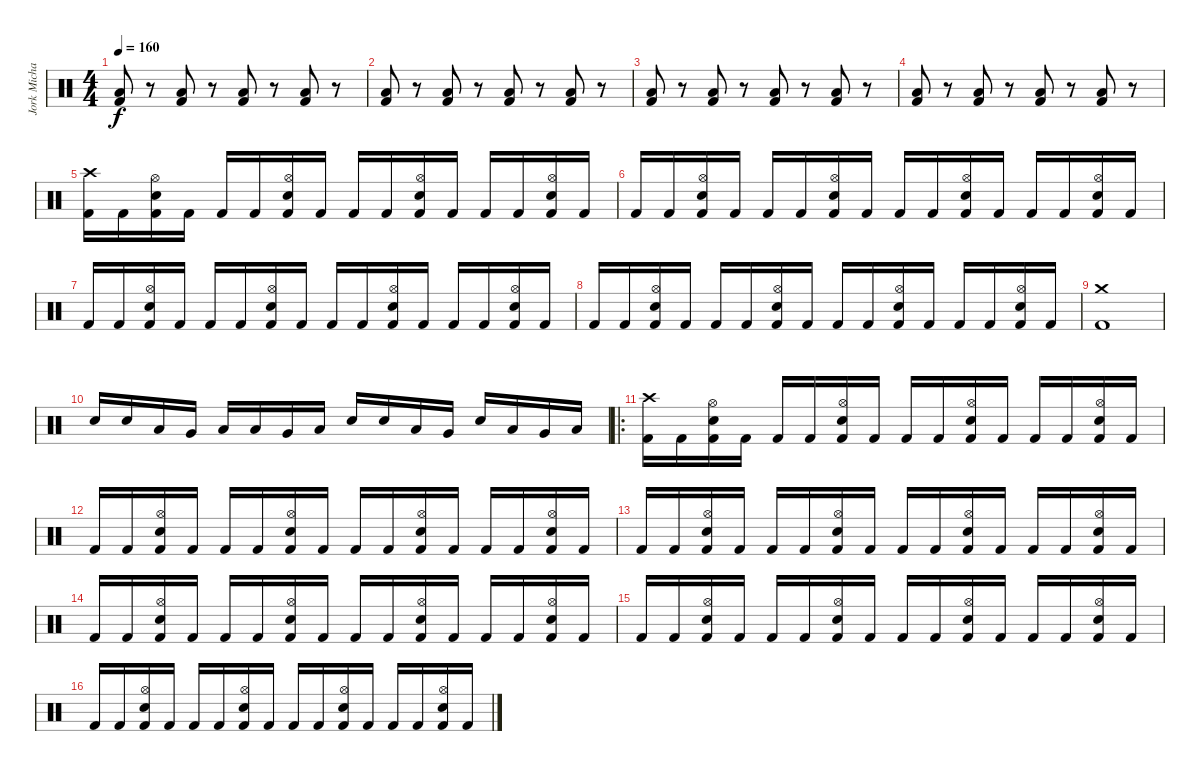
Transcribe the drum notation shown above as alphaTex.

\track ("Jork Michael" "Jork Micha") {instrument percussion}
\staff {score}
\articulation defaults
\ts (4 4)
\tempo 160
\clef neutral
\ks c
("Low Floor Tom (hit)" "Kick (hit) 2").8{dy f} r.8 ("Low Floor Tom (hit)" "Kick (hit) 2").8 r.8 ("Low Floor Tom (hit)" "Kick (hit) 2").8 r.8 ("Low Floor Tom (hit)" "Kick (hit) 2").8 r.8 |
("Low Floor Tom (hit)" "Kick (hit) 2").8 r.8 ("Low Floor Tom (hit)" "Kick (hit) 2").8 r.8 ("Low Floor Tom (hit)" "Kick (hit) 2").8 r.8 ("Low Floor Tom (hit)" "Kick (hit) 2").8 r.8 |
("Low Floor Tom (hit)" "Kick (hit) 2").8 r.8 ("Low Floor Tom (hit)" "Kick (hit) 2").8 r.8 ("Low Floor Tom (hit)" "Kick (hit) 2").8 r.8 ("Low Floor Tom (hit)" "Kick (hit) 2").8 r.8 |
("Low Floor Tom (hit)" "Kick (hit) 2").8 r.8 ("Low Floor Tom (hit)" "Kick (hit) 2").8 r.8 ("Low Floor Tom (hit)" "Kick (hit) 2").8 r.8 ("Low Floor Tom (hit)" "Kick (hit) 2").8 r.8 |
("Crash high (hit)" "Kick (hit) 2").16 "Kick (hit) 2".16 ("Hi-Hat (open)" "Electric Snare (hit)" "Kick (hit) 2").16 "Kick (hit) 2".16 "Kick (hit) 2".16 "Kick (hit) 2".16 ("Hi-Hat (open)" "Electric Snare (hit)" "Kick (hit) 2").16 "Kick (hit) 2".16 "Kick (hit) 2".16 "Kick (hit) 2".16 ("Hi-Hat (open)" "Electric Snare (hit)" "Kick (hit) 2").16 "Kick (hit) 2".16 "Kick (hit) 2".16 "Kick (hit) 2".16 ("Hi-Hat (open)" "Electric Snare (hit)" "Kick (hit) 2").16 "Kick (hit) 2".16 |
"Kick (hit) 2".16 "Kick (hit) 2".16 ("Hi-Hat (open)" "Electric Snare (hit)" "Kick (hit) 2").16 "Kick (hit) 2".16 "Kick (hit) 2".16 "Kick (hit) 2".16 ("Hi-Hat (open)" "Electric Snare (hit)" "Kick (hit) 2").16 "Kick (hit) 2".16 "Kick (hit) 2".16 "Kick (hit) 2".16 ("Hi-Hat (open)" "Electric Snare (hit)" "Kick (hit) 2").16 "Kick (hit) 2".16 "Kick (hit) 2".16 "Kick (hit) 2".16 ("Hi-Hat (open)" "Electric Snare (hit)" "Kick (hit) 2").16 "Kick (hit) 2".16 |
"Kick (hit) 2".16 "Kick (hit) 2".16 ("Hi-Hat (open)" "Electric Snare (hit)" "Kick (hit) 2").16 "Kick (hit) 2".16 "Kick (hit) 2".16 "Kick (hit) 2".16 ("Hi-Hat (open)" "Electric Snare (hit)" "Kick (hit) 2").16 "Kick (hit) 2".16 "Kick (hit) 2".16 "Kick (hit) 2".16 ("Hi-Hat (open)" "Electric Snare (hit)" "Kick (hit) 2").16 "Kick (hit) 2".16 "Kick (hit) 2".16 "Kick (hit) 2".16 ("Hi-Hat (open)" "Electric Snare (hit)" "Kick (hit) 2").16 "Kick (hit) 2".16 |
"Kick (hit) 2".16 "Kick (hit) 2".16 ("Hi-Hat (open)" "Electric Snare (hit)" "Kick (hit) 2").16 "Kick (hit) 2".16 "Kick (hit) 2".16 "Kick (hit) 2".16 ("Hi-Hat (open)" "Electric Snare (hit)" "Kick (hit) 2").16 "Kick (hit) 2".16 "Kick (hit) 2".16 "Kick (hit) 2".16 ("Hi-Hat (open)" "Electric Snare (hit)" "Kick (hit) 2").16 "Kick (hit) 2".16 "Kick (hit) 2".16 "Kick (hit) 2".16 ("Hi-Hat (open)" "Electric Snare (hit)" "Kick (hit) 2").16 "Kick (hit) 2".16 |
("Crash medium (hit)" "Kick (hit) 2").1 |
"Electric Snare (hit)".16 "Electric Snare (hit)".16 "Low Floor Tom (hit)".16 "Very Low Tom (hit)".16 "Low Floor Tom (hit)".16 "Low Tom (hit)".16 "Very Low Tom (hit)".16 "Low Floor Tom (hit)".16 "Electric Snare (hit)".16 "Electric Snare (hit)".16 "Low Floor Tom (hit)".16 "Very Low Tom (hit)".16 "Electric Snare (hit)".16 "Low Tom (hit)".16 "Very Low Tom (hit)".16 "Low Floor Tom (hit)".16 |
\ro
("Crash high (hit)" "Kick (hit) 2").16 "Kick (hit) 2".16 ("Hi-Hat (open)" "Electric Snare (hit)" "Kick (hit) 2").16 "Kick (hit) 2".16 "Kick (hit) 2".16 "Kick (hit) 2".16 ("Hi-Hat (open)" "Electric Snare (hit)" "Kick (hit) 2").16 "Kick (hit) 2".16 "Kick (hit) 2".16 "Kick (hit) 2".16 ("Hi-Hat (open)" "Electric Snare (hit)" "Kick (hit) 2").16 "Kick (hit) 2".16 "Kick (hit) 2".16 "Kick (hit) 2".16 ("Hi-Hat (open)" "Electric Snare (hit)" "Kick (hit) 2").16 "Kick (hit) 2".16 |
"Kick (hit) 2".16 "Kick (hit) 2".16 ("Hi-Hat (open)" "Electric Snare (hit)" "Kick (hit) 2").16 "Kick (hit) 2".16 "Kick (hit) 2".16 "Kick (hit) 2".16 ("Hi-Hat (open)" "Electric Snare (hit)" "Kick (hit) 2").16 "Kick (hit) 2".16 "Kick (hit) 2".16 "Kick (hit) 2".16 ("Hi-Hat (open)" "Electric Snare (hit)" "Kick (hit) 2").16 "Kick (hit) 2".16 "Kick (hit) 2".16 "Kick (hit) 2".16 ("Hi-Hat (open)" "Electric Snare (hit)" "Kick (hit) 2").16 "Kick (hit) 2".16 |
"Kick (hit) 2".16 "Kick (hit) 2".16 ("Hi-Hat (open)" "Electric Snare (hit)" "Kick (hit) 2").16 "Kick (hit) 2".16 "Kick (hit) 2".16 "Kick (hit) 2".16 ("Hi-Hat (open)" "Electric Snare (hit)" "Kick (hit) 2").16 "Kick (hit) 2".16 "Kick (hit) 2".16 "Kick (hit) 2".16 ("Hi-Hat (open)" "Electric Snare (hit)" "Kick (hit) 2").16 "Kick (hit) 2".16 "Kick (hit) 2".16 "Kick (hit) 2".16 ("Hi-Hat (open)" "Electric Snare (hit)" "Kick (hit) 2").16 "Kick (hit) 2".16 |
"Kick (hit) 2".16 "Kick (hit) 2".16 ("Hi-Hat (open)" "Electric Snare (hit)" "Kick (hit) 2").16 "Kick (hit) 2".16 "Kick (hit) 2".16 "Kick (hit) 2".16 ("Hi-Hat (open)" "Electric Snare (hit)" "Kick (hit) 2").16 "Kick (hit) 2".16 "Kick (hit) 2".16 "Kick (hit) 2".16 ("Hi-Hat (open)" "Electric Snare (hit)" "Kick (hit) 2").16 "Kick (hit) 2".16 "Kick (hit) 2".16 "Kick (hit) 2".16 ("Hi-Hat (open)" "Electric Snare (hit)" "Kick (hit) 2").16 "Kick (hit) 2".16 |
"Kick (hit) 2".16 "Kick (hit) 2".16 ("Hi-Hat (open)" "Electric Snare (hit)" "Kick (hit) 2").16 "Kick (hit) 2".16 "Kick (hit) 2".16 "Kick (hit) 2".16 ("Hi-Hat (open)" "Electric Snare (hit)" "Kick (hit) 2").16 "Kick (hit) 2".16 "Kick (hit) 2".16 "Kick (hit) 2".16 ("Hi-Hat (open)" "Electric Snare (hit)" "Kick (hit) 2").16 "Kick (hit) 2".16 "Kick (hit) 2".16 "Kick (hit) 2".16 ("Hi-Hat (open)" "Electric Snare (hit)" "Kick (hit) 2").16 "Kick (hit) 2".16 |
"Kick (hit) 2".16 "Kick (hit) 2".16 ("Hi-Hat (open)" "Electric Snare (hit)" "Kick (hit) 2").16 "Kick (hit) 2".16 "Kick (hit) 2".16 "Kick (hit) 2".16 ("Hi-Hat (open)" "Electric Snare (hit)" "Kick (hit) 2").16 "Kick (hit) 2".16 "Kick (hit) 2".16 "Kick (hit) 2".16 ("Hi-Hat (open)" "Electric Snare (hit)" "Kick (hit) 2").16 "Kick (hit) 2".16 "Kick (hit) 2".16 "Kick (hit) 2".16 ("Hi-Hat (open)" "Electric Snare (hit)" "Kick (hit) 2").16 "Kick (hit) 2".16
